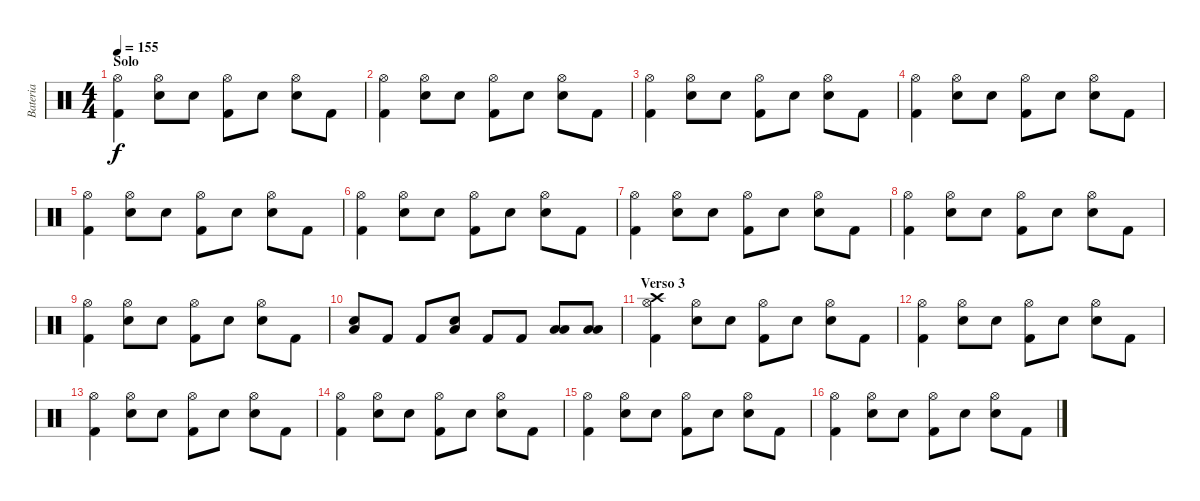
\track ("Bateria" "Bateria") {instrument percussion}
\staff {score}
\articulation defaults
\ts (4 4)
\section ("" "Solo")
\tempo 155
\clef neutral
\ks c
("Hi-Hat (open)" "Kick (hit) 2").4{dy f} ("Hi-Hat (open)" "Electric Snare (hit)").8 "Electric Snare (hit)".8 ("Hi-Hat (open)" "Kick (hit) 2").8 "Electric Snare (hit)".8 ("Hi-Hat (open)" "Electric Snare (hit)").8 "Kick (hit) 2".8 |
("Hi-Hat (open)" "Kick (hit) 2").4 ("Hi-Hat (open)" "Electric Snare (hit)").8 "Electric Snare (hit)".8 ("Hi-Hat (open)" "Kick (hit) 2").8 "Electric Snare (hit)".8 ("Hi-Hat (open)" "Electric Snare (hit)").8 "Kick (hit) 2".8 |
("Hi-Hat (open)" "Kick (hit) 2").4 ("Hi-Hat (open)" "Electric Snare (hit)").8 "Electric Snare (hit)".8 ("Hi-Hat (open)" "Kick (hit) 2").8 "Electric Snare (hit)".8 ("Hi-Hat (open)" "Electric Snare (hit)").8 "Kick (hit) 2".8 |
("Hi-Hat (open)" "Kick (hit) 2").4 ("Hi-Hat (open)" "Electric Snare (hit)").8 "Electric Snare (hit)".8 ("Hi-Hat (open)" "Kick (hit) 2").8 "Electric Snare (hit)".8 ("Hi-Hat (open)" "Electric Snare (hit)").8 "Kick (hit) 2".8 |
("Hi-Hat (open)" "Kick (hit) 2").4 ("Hi-Hat (open)" "Electric Snare (hit)").8 "Electric Snare (hit)".8 ("Hi-Hat (open)" "Kick (hit) 2").8 "Electric Snare (hit)".8 ("Hi-Hat (open)" "Electric Snare (hit)").8 "Kick (hit) 2".8 |
("Hi-Hat (open)" "Kick (hit) 2").4 ("Hi-Hat (open)" "Electric Snare (hit)").8 "Electric Snare (hit)".8 ("Hi-Hat (open)" "Kick (hit) 2").8 "Electric Snare (hit)".8 ("Hi-Hat (open)" "Electric Snare (hit)").8 "Kick (hit) 2".8 |
("Hi-Hat (open)" "Kick (hit) 2").4 ("Hi-Hat (open)" "Electric Snare (hit)").8 "Electric Snare (hit)".8 ("Hi-Hat (open)" "Kick (hit) 2").8 "Electric Snare (hit)".8 ("Hi-Hat (open)" "Electric Snare (hit)").8 "Kick (hit) 2".8 |
("Hi-Hat (open)" "Kick (hit) 2").4 ("Hi-Hat (open)" "Electric Snare (hit)").8 "Electric Snare (hit)".8 ("Hi-Hat (open)" "Kick (hit) 2").8 "Electric Snare (hit)".8 ("Hi-Hat (open)" "Electric Snare (hit)").8 "Kick (hit) 2".8 |
("Hi-Hat (open)" "Kick (hit) 2").4 ("Hi-Hat (open)" "Electric Snare (hit)").8 "Electric Snare (hit)".8 ("Hi-Hat (open)" "Kick (hit) 2").8 "Electric Snare (hit)".8 ("Hi-Hat (open)" "Electric Snare (hit)").8 "Kick (hit) 2".8 |
("Low Floor Tom (hit)" "Electric Snare (hit)").8 "Kick (hit) 2".8 "Kick (hit) 2".8 ("Low Floor Tom (hit)" "Electric Snare (hit)").8 "Kick (hit) 2".8 "Kick (hit) 2".8 ("Low Tom (hit)" "Low Floor Tom (hit)").8 ("Low Tom (hit)" "Low Floor Tom (hit)").8 |
\section ("" "Verso 3")
("Crash high (hit)" "Hi-Hat (open)" "Kick (hit) 2").4 ("Hi-Hat (open)" "Electric Snare (hit)").8 "Electric Snare (hit)".8 ("Hi-Hat (open)" "Kick (hit) 2").8 "Electric Snare (hit)".8 ("Hi-Hat (open)" "Electric Snare (hit)").8 "Kick (hit) 2".8 |
("Hi-Hat (open)" "Kick (hit) 2").4 ("Hi-Hat (open)" "Electric Snare (hit)").8 "Electric Snare (hit)".8 ("Hi-Hat (open)" "Kick (hit) 2").8 "Electric Snare (hit)".8 ("Hi-Hat (open)" "Electric Snare (hit)").8 "Kick (hit) 2".8 |
("Hi-Hat (open)" "Kick (hit) 2").4 ("Hi-Hat (open)" "Electric Snare (hit)").8 "Electric Snare (hit)".8 ("Hi-Hat (open)" "Kick (hit) 2").8 "Electric Snare (hit)".8 ("Hi-Hat (open)" "Electric Snare (hit)").8 "Kick (hit) 2".8 |
("Hi-Hat (open)" "Kick (hit) 2").4 ("Hi-Hat (open)" "Electric Snare (hit)").8 "Electric Snare (hit)".8 ("Hi-Hat (open)" "Kick (hit) 2").8 "Electric Snare (hit)".8 ("Hi-Hat (open)" "Electric Snare (hit)").8 "Kick (hit) 2".8 |
("Hi-Hat (open)" "Kick (hit) 2").4 ("Hi-Hat (open)" "Electric Snare (hit)").8 "Electric Snare (hit)".8 ("Hi-Hat (open)" "Kick (hit) 2").8 "Electric Snare (hit)".8 ("Hi-Hat (open)" "Electric Snare (hit)").8 "Kick (hit) 2".8 |
("Hi-Hat (open)" "Kick (hit) 2").4 ("Hi-Hat (open)" "Electric Snare (hit)").8 "Electric Snare (hit)".8 ("Hi-Hat (open)" "Kick (hit) 2").8 "Electric Snare (hit)".8 ("Hi-Hat (open)" "Electric Snare (hit)").8 "Kick (hit) 2".8
